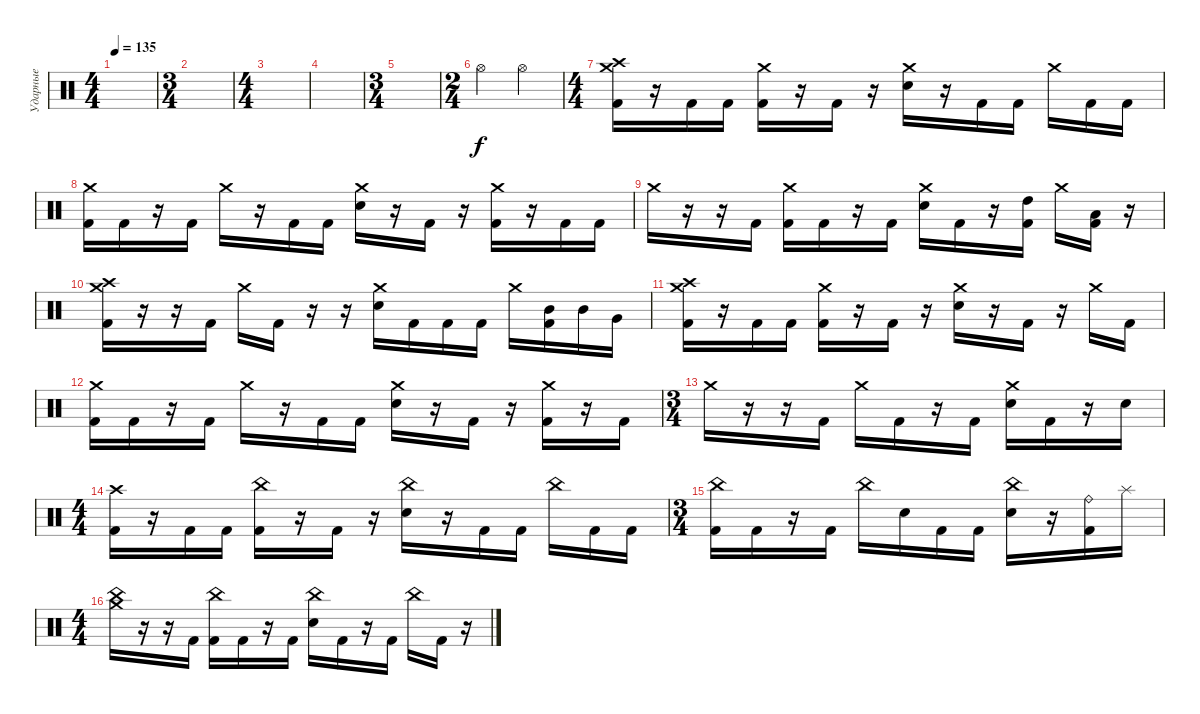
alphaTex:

\track ("Ударные" "Ударные") {instrument percussion}
\staff {score}
\articulation defaults
\ts (4 4)
\tempo 135
\clef neutral
\ks c
|
\ts (3 4)
|
\ts (4 4)
|
|
\ts (3 4)
|
\ts (2 4)
"Hi-Hat (open)".4 "Hi-Hat (open)".4 |
\ts (4 4)
("Crash medium (hit)" "Crash high (hit)" "Kick (hit) 2").16 r.16 "Kick (hit) 2".16 "Kick (hit) 2".16 ("Crash medium (hit)" "Kick (hit) 2").16 r.16 "Kick (hit) 2".16 r.16 ("Crash medium (hit)" "Electric Snare (hit)").16 r.16 "Kick (hit) 2".16 "Kick (hit) 2".16 "Crash medium (hit)".16 "Kick (hit) 2".16 "Kick (hit) 2".16 |
("Crash medium (hit)" "Kick (hit) 2").16 "Kick (hit) 2".16 r.16 "Kick (hit) 2".16 "Crash medium (hit)".16 r.16 "Kick (hit) 2".16 "Kick (hit) 2".16 ("Crash medium (hit)" "Electric Snare (hit)").16 r.16 "Kick (hit) 2".16 r.16 ("Crash medium (hit)" "Kick (hit) 2").16 r.16 "Kick (hit) 2".16 "Kick (hit) 2".16 |
"Crash medium (hit)".16 r.16 r.16 "Kick (hit) 2".16 ("Crash medium (hit)" "Kick (hit) 2").16 "Kick (hit) 2".16 r.16 "Kick (hit) 2".16 ("Crash medium (hit)" "Electric Snare (hit)").16 "Kick (hit) 2".16 r.16 ("High Tom (hit)" "Kick (hit) 2").16 "Crash medium (hit)".16 ("Low Tom (hit)" "Kick (hit) 2").16 r.16 |
("Crash medium (hit)" "Crash high (hit)" "Kick (hit) 2").16 r.16 r.16 "Kick (hit) 2".16 "Crash medium (hit)".16 "Kick (hit) 2".16 r.16 r.16 ("Crash medium (hit)" "Electric Snare (hit)").16 "Kick (hit) 2".16 "Kick (hit) 2".16 "Kick (hit) 2".16 "Crash medium (hit)".16 ("Mid Tom (hit)" "Kick (hit) 2").16 "Mid Tom (hit)".16 "Very Low Tom (hit)".16 |
("Crash medium (hit)" "Crash high (hit)" "Kick (hit) 2").16 r.16 "Kick (hit) 2".16 "Kick (hit) 2".16 ("Crash medium (hit)" "Kick (hit) 2").16 r.16 "Kick (hit) 2".16 r.16 ("Crash medium (hit)" "Electric Snare (hit)").16 r.16 "Kick (hit) 2".16 r.16 "Crash medium (hit)".16 "Kick (hit) 2".16 |
("Crash medium (hit)" "Kick (hit) 2").16 "Kick (hit) 2".16 r.16 "Kick (hit) 2".16 "Crash medium (hit)".16 r.16 "Kick (hit) 2".16 "Kick (hit) 2".16 ("Crash medium (hit)" "Electric Snare (hit)").16 r.16 "Kick (hit) 2".16 r.16 ("Crash medium (hit)" "Kick (hit) 2").16 r.16 "Kick (hit) 2".16 |
\ts (3 4)
"Crash medium (hit)".16 r.16 r.16 "Kick (hit) 2".16 "Crash medium (hit)".16 "Kick (hit) 2".16 r.16 "Kick (hit) 2".16 ("Crash medium (hit)" "Electric Snare (hit)").16 "Kick (hit) 2".16 r.16 "Electric Snare (hit)".16 |
\ts (4 4)
("Crash high (hit)" "Kick (hit) 2").16 r.16 "Kick (hit) 2".16 "Kick (hit) 2".16 ("China (hit)" "Kick (hit) 2").16 r.16 "Kick (hit) 2".16 r.16 ("China (hit)" "Electric Snare (hit)").16 r.16 "Kick (hit) 2".16 "Kick (hit) 2".16 "China (hit)".16 "Kick (hit) 2".16 "Kick (hit) 2".16 |
\ts (3 4)
("China (hit)" "Kick (hit) 2").16 "Kick (hit) 2".16 r.16 "Kick (hit) 2".16 "China (hit)".16 "Electric Snare (hit)".16 "Kick (hit) 2".16 "Kick (hit) 2".16 ("China (hit)" "Electric Snare (hit)").16 r.16 ("Ride (bell)" "Kick (hit) 2").16 "Splash (hit)".16 |
\ts (4 4)
("China (hit)" "Crash medium (hit)").16 r.16 r.16 "Kick (hit) 2".16 ("China (hit)" "Kick (hit) 2").16 "Kick (hit) 2".16 r.16 "Kick (hit) 2".16 ("China (hit)" "Electric Snare (hit)").16 "Kick (hit) 2".16 r.16 "Kick (hit) 2".16 "China (hit)".16 "Kick (hit) 2".16 r.16
